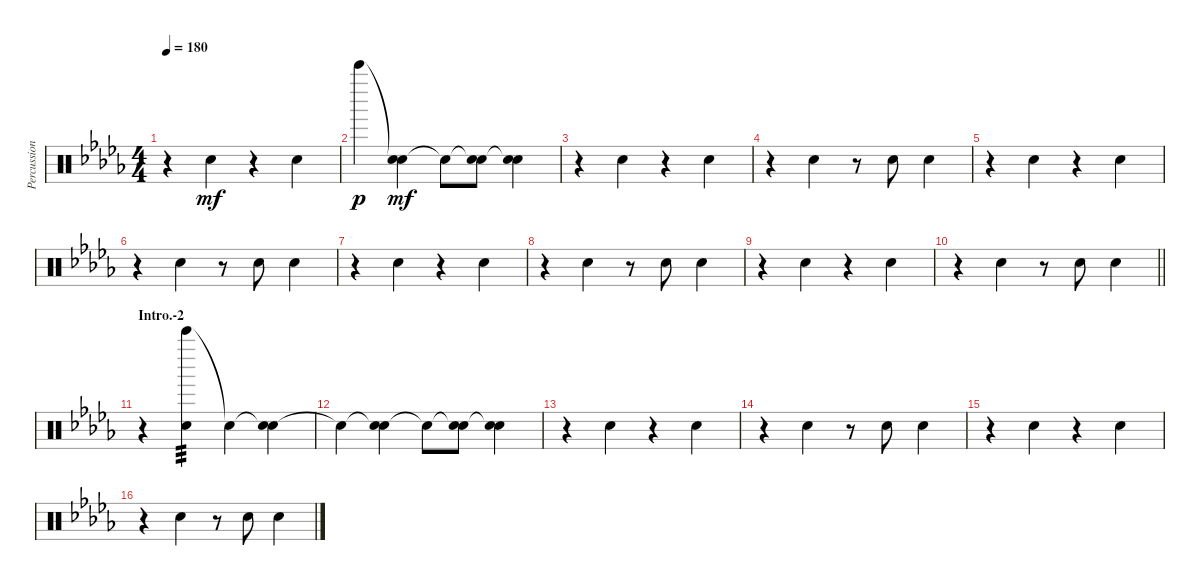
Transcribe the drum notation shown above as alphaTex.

\track ("Percussion I (Tainaka Ritsu)" "Percussion") {instrument percussion}
\staff {score}
\articulation defaults
\ts (4 4)
\tempo 180
\clef neutral
\ks db
r.4{dy mf} "Hand Clap (hit)".4 r.4 "Hand Clap (hit)".4 |
"Bell Tree (hit)".4{dy p} ("Snare (hit)"{t} "Hand Clap (hit)").4{dy mf} "Snare (hit)"{t}.8 ("Snare (hit)"{t} "Hand Clap (hit)").8 ("Snare (hit)"{t} "Hand Clap (hit)").4 |
r.4 "Hand Clap (hit)".4 r.4 "Hand Clap (hit)".4 |
r.4 "Hand Clap (hit)".4 r.8 "Hand Clap (hit)".8 "Hand Clap (hit)".4 |
r.4 "Hand Clap (hit)".4 r.4 "Hand Clap (hit)".4 |
r.4 "Hand Clap (hit)".4 r.8 "Hand Clap (hit)".8 "Hand Clap (hit)".4 |
r.4 "Hand Clap (hit)".4 r.4 "Hand Clap (hit)".4 |
r.4 "Hand Clap (hit)".4 r.8 "Hand Clap (hit)".8 "Hand Clap (hit)".4 |
r.4 "Hand Clap (hit)".4 r.4 "Hand Clap (hit)".4 |
\barLineRight lightlight
r.4 "Hand Clap (hit)".4 r.8 "Hand Clap (hit)".8 "Hand Clap (hit)".4 |
\section ("" "Intro.-2")
r.4 ("Bell Tree (hit)" "Hand Clap (hit)").4{tp 3} "Snare (hit)"{t}.4 ("Snare (hit)"{t} "Hand Clap (hit)").4 |
"Snare (hit)"{t}.4 ("Snare (hit)"{t} "Hand Clap (hit)").4 "Snare (hit)"{t}.8 ("Snare (hit)"{t} "Hand Clap (hit)").8 ("Snare (hit)"{t} "Hand Clap (hit)").4 |
r.4 "Hand Clap (hit)".4 r.4 "Hand Clap (hit)".4 |
r.4 "Hand Clap (hit)".4 r.8 "Hand Clap (hit)".8 "Hand Clap (hit)".4 |
r.4 "Hand Clap (hit)".4 r.4 "Hand Clap (hit)".4 |
r.4 "Hand Clap (hit)".4 r.8 "Hand Clap (hit)".8 "Hand Clap (hit)".4
